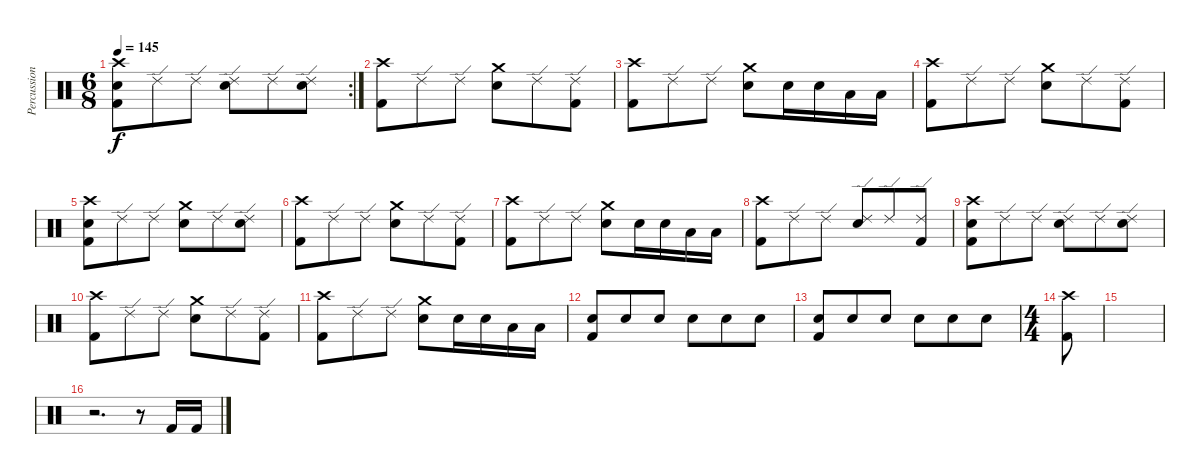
\track ("Percussion" "Percussion") {instrument percussion}
\staff {score}
\articulation defaults
\rc 2
\ts (6 8)
\tempo 145
\clef neutral
\ks c
("Crash high (hit)" "Electric Snare (hit)" "Kick (hit) 2").8{dy f} "Ride (edge) 2".8 "Ride (edge) 2".8 ("Ride (edge) 2" "Electric Snare (hit)").8 "Ride (edge) 2".8 ("Ride (edge) 2" "Electric Snare (hit)").8 |
("Crash high (hit)" "Kick (hit) 2").8 "Ride (edge) 2".8 "Ride (edge) 2".8 ("Crash medium (hit)" "Electric Snare (hit)").8 "Ride (edge) 2".8 ("Ride (edge) 2" "Kick (hit) 2").8 |
("Crash high (hit)" "Kick (hit) 2").8 "Ride (edge) 2".8 "Ride (edge) 2".8 ("Crash medium (hit)" "Electric Snare (hit)").8 "Electric Snare (hit)".16 "Electric Snare (hit)".16 "Low Tom (hit)".16 "Low Tom (hit)".16 |
("Crash high (hit)" "Kick (hit) 2").8 "Ride (edge) 2".8 "Ride (edge) 2".8 ("Crash medium (hit)" "Electric Snare (hit)").8 "Ride (edge) 2".8 ("Ride (edge) 2" "Kick (hit) 2").8 |
("Crash high (hit)" "Electric Snare (hit)" "Kick (hit) 2").8 "Ride (edge) 2".8 "Ride (edge) 2".8 ("Crash medium (hit)" "Electric Snare (hit)").8 "Ride (edge) 2".8 ("Ride (edge) 2" "Electric Snare (hit)").8 |
("Crash high (hit)" "Kick (hit) 2").8 "Ride (edge) 2".8 "Ride (edge) 2".8 ("Crash medium (hit)" "Electric Snare (hit)").8 "Ride (edge) 2".8 ("Ride (edge) 2" "Kick (hit) 2").8 |
("Crash high (hit)" "Kick (hit) 2").8 "Ride (edge) 2".8 "Ride (edge) 2".8 ("Crash medium (hit)" "Electric Snare (hit)").8 "Electric Snare (hit)".16 "Electric Snare (hit)".16 "Low Tom (hit)".16 "Low Tom (hit)".16 |
("Crash high (hit)" "Kick (hit) 2").8 "Ride (edge) 2".8 "Ride (edge) 2".8 ("Ride (edge) 2" "Electric Snare (hit)").8 "Ride (edge) 2".8 ("Ride (edge) 2" "Kick (hit) 2").8 |
("Crash high (hit)" "Electric Snare (hit)" "Kick (hit) 2").8 "Ride (edge) 2".8 "Ride (edge) 2".8 ("Ride (edge) 2" "Electric Snare (hit)").8 "Ride (edge) 2".8 ("Ride (edge) 2" "Electric Snare (hit)").8 |
("Crash high (hit)" "Kick (hit) 2").8 "Ride (edge) 2".8 "Ride (edge) 2".8 ("Crash medium (hit)" "Electric Snare (hit)").8 "Ride (edge) 2".8 ("Ride (edge) 2" "Kick (hit) 2").8 |
("Crash high (hit)" "Kick (hit) 2").8 "Ride (edge) 2".8 "Ride (edge) 2".8 ("Crash medium (hit)" "Electric Snare (hit)").8 "Electric Snare (hit)".16 "Electric Snare (hit)".16 "Low Tom (hit)".16 "Low Tom (hit)".16 |
("Electric Snare (hit)" "Kick (hit) 2").8 "Electric Snare (hit)".8 "Electric Snare (hit)".8 "Electric Snare (hit)".8 "Electric Snare (hit)".8 "Electric Snare (hit)".8 |
("Electric Snare (hit)" "Kick (hit) 2").8 "Electric Snare (hit)".8 "Electric Snare (hit)".8 "Electric Snare (hit)".8 "Electric Snare (hit)".8 "Electric Snare (hit)".8 |
\ts (4 4)
("Crash high (hit)" "Kick (hit) 2").8 |
|
r.2{d} r.8 "Kick (hit) 2".16 "Kick (hit) 2".16
